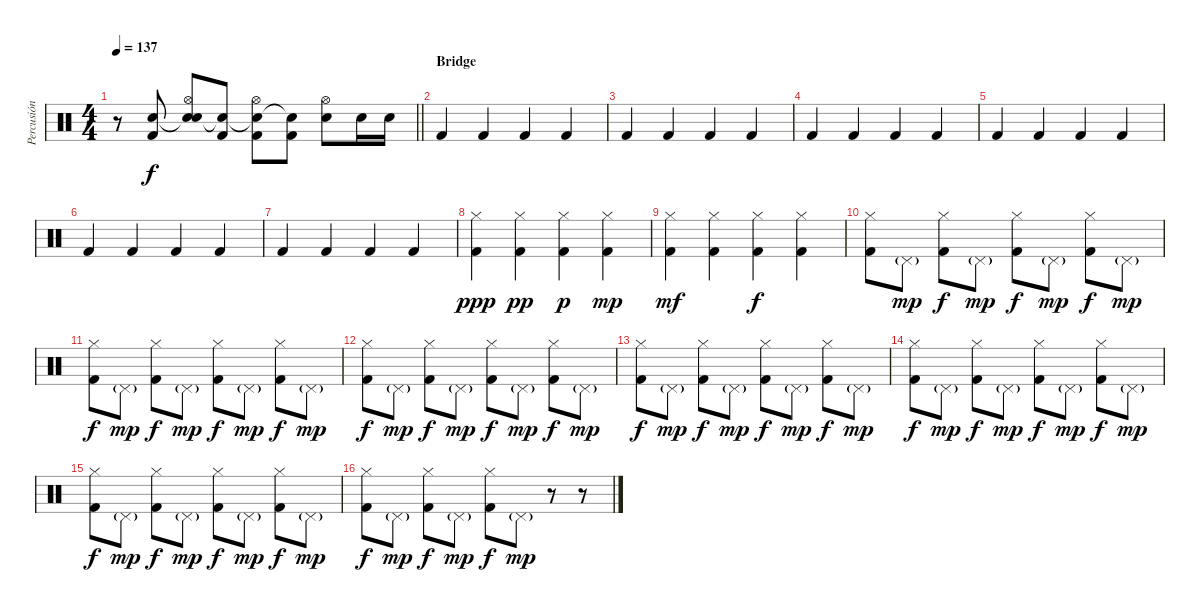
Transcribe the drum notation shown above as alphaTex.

\track ("Percusión" "Percusión") {instrument percussion}
\staff {score}
\articulation defaults
\ts (4 4)
\tempo 137
\clef neutral
\barLineRight lightlight
\ks c
r.8{dy f} ("Snare (hit)"{t} "Kick (hit) 2").8 ("Snare (hit)"{t} "Hi-Hat (open)" "Electric Snare (hit)").8 ("Snare (hit)"{t} "Kick (hit) 2").8 ("Snare (hit)"{t} "Hi-Hat (open)" "Kick (hit) 2").8 ("Snare (hit)"{t} "Kick (hit) 2").8 ("Hi-Hat (open)" "Electric Snare (hit)").8 "Electric Snare (hit)".16 "Electric Snare (hit)".16 |
\section ("" "Bridge")
"Kick (hit) 2".4 "Kick (hit) 2".4 "Kick (hit) 2".4 "Kick (hit) 2".4 |
"Kick (hit) 2".4 "Kick (hit) 2".4 "Kick (hit) 2".4 "Kick (hit) 2".4 |
"Kick (hit) 2".4 "Kick (hit) 2".4 "Kick (hit) 2".4 "Kick (hit) 2".4 |
"Kick (hit) 2".4 "Kick (hit) 2".4 "Kick (hit) 2".4 "Kick (hit) 2".4 |
"Kick (hit) 2".4 "Kick (hit) 2".4 "Kick (hit) 2".4 "Kick (hit) 2".4 |
"Kick (hit) 2".4 "Kick (hit) 2".4 "Kick (hit) 2".4 "Kick (hit) 2".4 |
("Hi-Hat (closed)" "Kick (hit) 2").4{dy ppp} ("Hi-Hat (closed)" "Kick (hit) 2").4{dy pp} ("Hi-Hat (closed)" "Kick (hit) 2").4{dy p} ("Hi-Hat (closed)" "Kick (hit) 2").4{dy mp} |
("Hi-Hat (closed)" "Kick (hit) 2").4{dy mf} ("Hi-Hat (closed)" "Kick (hit) 2").4 ("Hi-Hat (closed)" "Kick (hit) 2").4{dy f} ("Hi-Hat (closed)" "Kick (hit) 2").4 |
("Hi-Hat (closed)" "Kick (hit) 2").8 "Pedal Hi-Hat (hit)"{g}.8{dy mp} ("Hi-Hat (closed)" "Kick (hit) 2").8{dy f} "Pedal Hi-Hat (hit)"{g}.8{dy mp} ("Hi-Hat (closed)" "Kick (hit) 2").8{dy f} "Pedal Hi-Hat (hit)"{g}.8{dy mp} ("Hi-Hat (closed)" "Kick (hit) 2").8{dy f} "Pedal Hi-Hat (hit)"{g}.8{dy mp} |
("Hi-Hat (closed)" "Kick (hit) 2").8{dy f} "Pedal Hi-Hat (hit)"{g}.8{dy mp} ("Hi-Hat (closed)" "Kick (hit) 2").8{dy f} "Pedal Hi-Hat (hit)"{g}.8{dy mp} ("Hi-Hat (closed)" "Kick (hit) 2").8{dy f} "Pedal Hi-Hat (hit)"{g}.8{dy mp} ("Hi-Hat (closed)" "Kick (hit) 2").8{dy f} "Pedal Hi-Hat (hit)"{g}.8{dy mp} |
("Hi-Hat (closed)" "Kick (hit) 2").8{dy f} "Pedal Hi-Hat (hit)"{g}.8{dy mp} ("Hi-Hat (closed)" "Kick (hit) 2").8{dy f} "Pedal Hi-Hat (hit)"{g}.8{dy mp} ("Hi-Hat (closed)" "Kick (hit) 2").8{dy f} "Pedal Hi-Hat (hit)"{g}.8{dy mp} ("Hi-Hat (closed)" "Kick (hit) 2").8{dy f} "Pedal Hi-Hat (hit)"{g}.8{dy mp} |
("Hi-Hat (closed)" "Kick (hit) 2").8{dy f} "Pedal Hi-Hat (hit)"{g}.8{dy mp} ("Hi-Hat (closed)" "Kick (hit) 2").8{dy f} "Pedal Hi-Hat (hit)"{g}.8{dy mp} ("Hi-Hat (closed)" "Kick (hit) 2").8{dy f} "Pedal Hi-Hat (hit)"{g}.8{dy mp} ("Hi-Hat (closed)" "Kick (hit) 2").8{dy f} "Pedal Hi-Hat (hit)"{g}.8{dy mp} |
("Hi-Hat (closed)" "Kick (hit) 2").8{dy f} "Pedal Hi-Hat (hit)"{g}.8{dy mp} ("Hi-Hat (closed)" "Kick (hit) 2").8{dy f} "Pedal Hi-Hat (hit)"{g}.8{dy mp} ("Hi-Hat (closed)" "Kick (hit) 2").8{dy f} "Pedal Hi-Hat (hit)"{g}.8{dy mp} ("Hi-Hat (closed)" "Kick (hit) 2").8{dy f} "Pedal Hi-Hat (hit)"{g}.8{dy mp} |
("Hi-Hat (closed)" "Kick (hit) 2").8{dy f} "Pedal Hi-Hat (hit)"{g}.8{dy mp} ("Hi-Hat (closed)" "Kick (hit) 2").8{dy f} "Pedal Hi-Hat (hit)"{g}.8{dy mp} ("Hi-Hat (closed)" "Kick (hit) 2").8{dy f} "Pedal Hi-Hat (hit)"{g}.8{dy mp} ("Hi-Hat (closed)" "Kick (hit) 2").8{dy f} "Pedal Hi-Hat (hit)"{g}.8{dy mp} |
("Hi-Hat (closed)" "Kick (hit) 2").8{dy f} "Pedal Hi-Hat (hit)"{g}.8{dy mp} ("Hi-Hat (closed)" "Kick (hit) 2").8{dy f} "Pedal Hi-Hat (hit)"{g}.8{dy mp} ("Hi-Hat (closed)" "Kick (hit) 2").8{dy f} "Pedal Hi-Hat (hit)"{g}.8{dy mp} r.8 r.8
